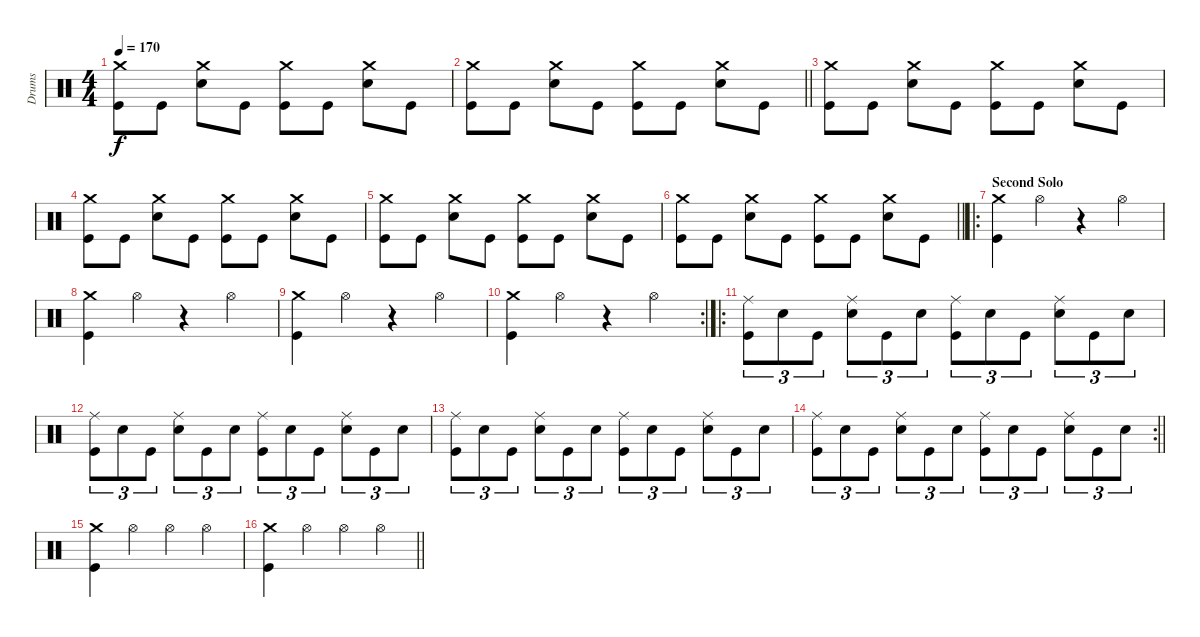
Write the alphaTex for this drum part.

\track ("Drums" "Drums") {instrument percussion}
\staff {score}
\articulation defaults
\ts (4 4)
\tempo 170
\clef neutral
\ks c
("Crash medium (hit)" "Kick (hit)").8{dy f} "Kick (hit)".8 ("Crash medium (hit)" "Snare (hit) 2").8 "Kick (hit)".8 ("Crash medium (hit)" "Kick (hit)").8 "Kick (hit)".8 ("Crash medium (hit)" "Snare (hit) 2").8 "Kick (hit)".8 |
\barLineRight lightlight
("Crash medium (hit)" "Kick (hit)").8 "Kick (hit)".8 ("Crash medium (hit)" "Snare (hit) 2").8 "Kick (hit)".8 ("Crash medium (hit)" "Kick (hit)").8 "Kick (hit)".8 ("Crash medium (hit)" "Snare (hit) 2").8 "Kick (hit)".8 |
("Crash medium (hit)" "Kick (hit)").8 "Kick (hit)".8 ("Crash medium (hit)" "Snare (hit) 2").8 "Kick (hit)".8 ("Crash medium (hit)" "Kick (hit)").8 "Kick (hit)".8 ("Crash medium (hit)" "Snare (hit) 2").8 "Kick (hit)".8 |
("Crash medium (hit)" "Kick (hit)").8 "Kick (hit)".8 ("Crash medium (hit)" "Snare (hit) 2").8 "Kick (hit)".8 ("Crash medium (hit)" "Kick (hit)").8 "Kick (hit)".8 ("Crash medium (hit)" "Snare (hit) 2").8 "Kick (hit)".8 |
("Crash medium (hit)" "Kick (hit)").8 "Kick (hit)".8 ("Crash medium (hit)" "Snare (hit) 2").8 "Kick (hit)".8 ("Crash medium (hit)" "Kick (hit)").8 "Kick (hit)".8 ("Crash medium (hit)" "Snare (hit) 2").8 "Kick (hit)".8 |
\barLineRight lightlight
("Crash medium (hit)" "Kick (hit)").8 "Kick (hit)".8 ("Crash medium (hit)" "Snare (hit) 2").8 "Kick (hit)".8 ("Crash medium (hit)" "Kick (hit)").8 "Kick (hit)".8 ("Crash medium (hit)" "Snare (hit) 2").8 "Kick (hit)".8 |
\ro
\section ("" "Second Solo")
("Crash medium (hit)" "Kick (hit)").4 "Hi-Hat (open)".4 r.4 "Hi-Hat (open)".4 |
("Crash medium (hit)" "Kick (hit)").4 "Hi-Hat (open)".4 r.4 "Hi-Hat (open)".4 |
("Crash medium (hit)" "Kick (hit)").4 "Hi-Hat (open)".4 r.4 "Hi-Hat (open)".4 |
\rc 2
("Crash medium (hit)" "Kick (hit)").4 "Hi-Hat (open)".4 r.4 "Hi-Hat (open)".4 |
\ro
("Ride (middle)" "Kick (hit)").8{tu (3 2)} "Snare (hit) 2".8{tu (3 2)} "Kick (hit)".8{tu (3 2)} ("Ride (middle)" "Snare (hit) 2").8{tu (3 2)} "Kick (hit)".8{tu (3 2)} "Snare (hit) 2".8{tu (3 2)} ("Ride (middle)" "Kick (hit)").8{tu (3 2)} "Snare (hit) 2".8{tu (3 2)} "Kick (hit)".8{tu (3 2)} ("Ride (middle)" "Snare (hit) 2").8{tu (3 2)} "Kick (hit)".8{tu (3 2)} "Snare (hit) 2".8{tu (3 2)} |
("Ride (middle)" "Kick (hit)").8{tu (3 2)} "Snare (hit) 2".8{tu (3 2)} "Kick (hit)".8{tu (3 2)} ("Ride (middle)" "Snare (hit) 2").8{tu (3 2)} "Kick (hit)".8{tu (3 2)} "Snare (hit) 2".8{tu (3 2)} ("Ride (middle)" "Kick (hit)").8{tu (3 2)} "Snare (hit) 2".8{tu (3 2)} "Kick (hit)".8{tu (3 2)} ("Ride (middle)" "Snare (hit) 2").8{tu (3 2)} "Kick (hit)".8{tu (3 2)} "Snare (hit) 2".8{tu (3 2)} |
("Ride (middle)" "Kick (hit)").8{tu (3 2)} "Snare (hit) 2".8{tu (3 2)} "Kick (hit)".8{tu (3 2)} ("Ride (middle)" "Snare (hit) 2").8{tu (3 2)} "Kick (hit)".8{tu (3 2)} "Snare (hit) 2".8{tu (3 2)} ("Ride (middle)" "Kick (hit)").8{tu (3 2)} "Snare (hit) 2".8{tu (3 2)} "Kick (hit)".8{tu (3 2)} ("Ride (middle)" "Snare (hit) 2").8{tu (3 2)} "Kick (hit)".8{tu (3 2)} "Snare (hit) 2".8{tu (3 2)} |
\rc 2
\barLineRight lightlight
("Ride (middle)" "Kick (hit)").8{tu (3 2)} "Snare (hit) 2".8{tu (3 2)} "Kick (hit)".8{tu (3 2)} ("Ride (middle)" "Snare (hit) 2").8{tu (3 2)} "Kick (hit)".8{tu (3 2)} "Snare (hit) 2".8{tu (3 2)} ("Ride (middle)" "Kick (hit)").8{tu (3 2)} "Snare (hit) 2".8{tu (3 2)} "Kick (hit)".8{tu (3 2)} ("Ride (middle)" "Snare (hit) 2").8{tu (3 2)} "Kick (hit)".8{tu (3 2)} "Snare (hit) 2".8{tu (3 2)} |
("Crash medium (hit)" "Kick (hit)").4 "Hi-Hat (open)".4 "Hi-Hat (open)".4 "Hi-Hat (open)".4 |
\barLineRight lightlight
("Crash medium (hit)" "Kick (hit)").4 "Hi-Hat (open)".4 "Hi-Hat (open)".4 "Hi-Hat (open)".4
